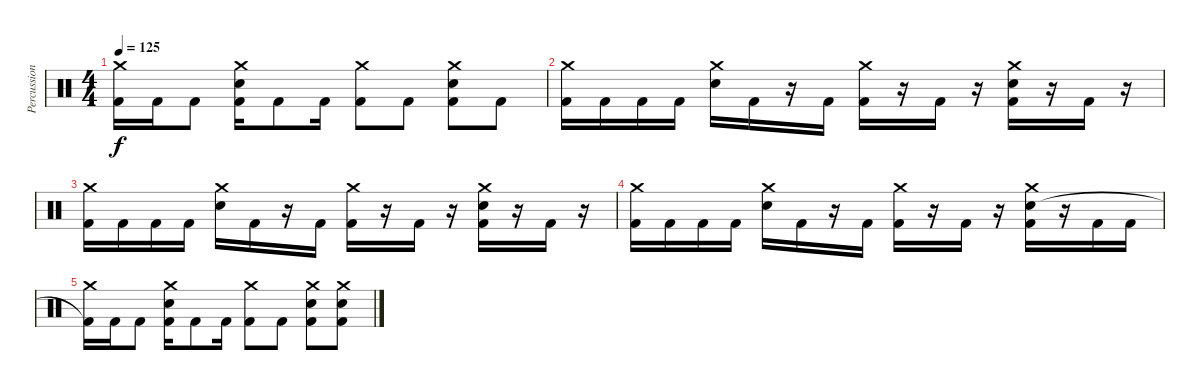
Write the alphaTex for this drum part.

\track ("Percussion" "Percussion") {instrument percussion}
\staff {score}
\articulation defaults
\ts (4 4)
\tempo 125
\clef neutral
\ks c
("Crash medium (hit)" "Kick (hit) 2"{t}).16{dy f} "Kick (hit) 2".16 "Kick (hit) 2".8 ("Crash medium (hit)" "Electric Snare (hit)" "Kick (hit) 2").16 "Kick (hit) 2".8 "Kick (hit) 2".16 ("Crash medium (hit)" "Kick (hit) 2").8 "Kick (hit) 2".8 ("Crash medium (hit)" "Electric Snare (hit)" "Kick (hit) 2").8 "Kick (hit) 2".8 |
("Crash medium (hit)" "Kick (hit) 2").16 "Kick (hit) 2".16 "Kick (hit) 2".16 "Kick (hit) 2".16 ("Crash medium (hit)" "Electric Snare (hit)").16 "Kick (hit) 2".16 r.16 "Kick (hit) 2".16 ("Crash medium (hit)" "Kick (hit) 2").16 r.16 "Kick (hit) 2".16 r.16 ("Crash medium (hit)" "Electric Snare (hit)" "Kick (hit) 2").16 r.16 "Kick (hit) 2".16 r.16 |
("Crash medium (hit)" "Kick (hit) 2").16 "Kick (hit) 2".16 "Kick (hit) 2".16 "Kick (hit) 2".16 ("Crash medium (hit)" "Electric Snare (hit)").16 "Kick (hit) 2".16 r.16 "Kick (hit) 2".16 ("Crash medium (hit)" "Kick (hit) 2").16 r.16 "Kick (hit) 2".16 r.16 ("Crash medium (hit)" "Electric Snare (hit)" "Kick (hit) 2").16 r.16 "Kick (hit) 2".16 r.16 |
("Crash medium (hit)" "Kick (hit) 2").16 "Kick (hit) 2".16 "Kick (hit) 2".16 "Kick (hit) 2".16 ("Crash medium (hit)" "Electric Snare (hit)").16 "Kick (hit) 2".16 r.16 "Kick (hit) 2".16 ("Crash medium (hit)" "Kick (hit) 2").16 r.16 "Kick (hit) 2".16 r.16 ("Crash medium (hit)" "Electric Snare (hit)" "Kick (hit) 2").16 r.16 "Kick (hit) 2".16 "Kick (hit) 2".16 |
("Crash medium (hit)" "Kick (hit) 2"{t}).16 "Kick (hit) 2".16 "Kick (hit) 2".8 ("Crash medium (hit)" "Electric Snare (hit)" "Kick (hit) 2").16 "Kick (hit) 2".8 "Kick (hit) 2".16 ("Crash medium (hit)" "Kick (hit) 2").8 "Kick (hit) 2".8 ("Crash medium (hit)" "Electric Snare (hit)" "Kick (hit) 2").8 ("Crash medium (hit)" "Electric Snare (hit)" "Kick (hit) 2").8
